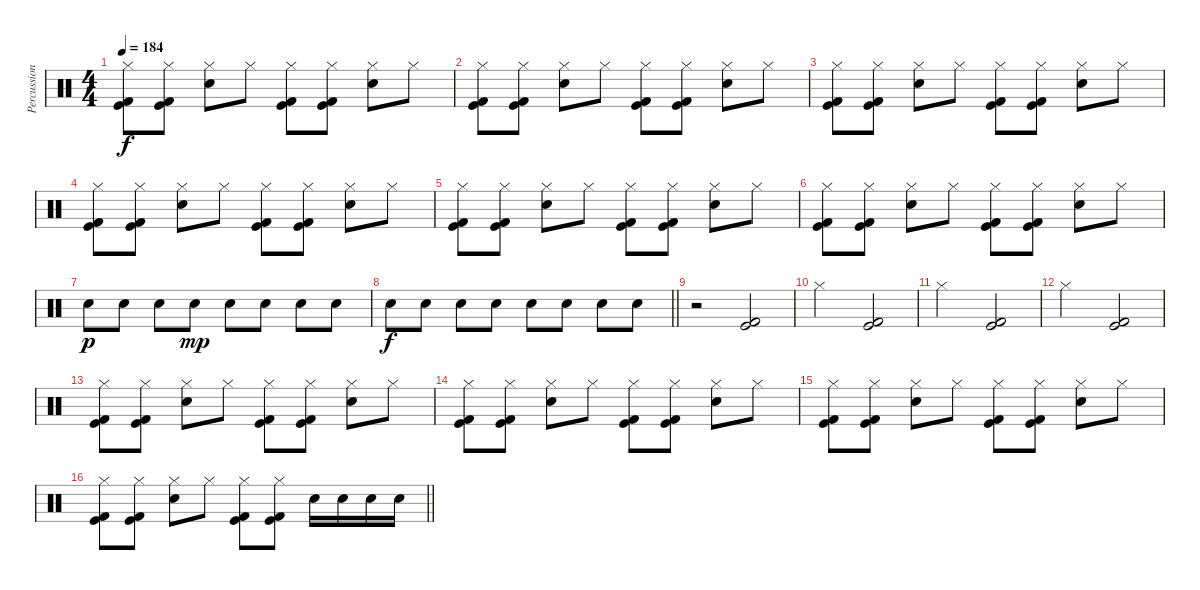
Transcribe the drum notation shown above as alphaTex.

\track ("Percussion" "Percussion") {instrument percussion}
\staff {score}
\articulation defaults
\ts (4 4)
\tempo 184
\clef neutral
\ks c
("Hi-Hat (closed)" "Kick (hit)" "Kick (hit) 2").8{dy f} ("Hi-Hat (closed)" "Kick (hit)" "Kick (hit) 2").8 ("Hi-Hat (closed)" "Electric Snare (hit)").8 "Hi-Hat (closed)".8 ("Hi-Hat (closed)" "Kick (hit)" "Kick (hit) 2").8 ("Hi-Hat (closed)" "Kick (hit)" "Kick (hit) 2").8 ("Hi-Hat (closed)" "Electric Snare (hit)").8 "Hi-Hat (closed)".8 |
("Hi-Hat (closed)" "Kick (hit)" "Kick (hit) 2").8 ("Hi-Hat (closed)" "Kick (hit)" "Kick (hit) 2").8 ("Hi-Hat (closed)" "Electric Snare (hit)").8 "Hi-Hat (closed)".8 ("Hi-Hat (closed)" "Kick (hit)" "Kick (hit) 2").8 ("Hi-Hat (closed)" "Kick (hit)" "Kick (hit) 2").8 ("Hi-Hat (closed)" "Electric Snare (hit)").8 "Hi-Hat (closed)".8 |
("Hi-Hat (closed)" "Kick (hit)" "Kick (hit) 2").8 ("Hi-Hat (closed)" "Kick (hit)" "Kick (hit) 2").8 ("Hi-Hat (closed)" "Electric Snare (hit)").8 "Hi-Hat (closed)".8 ("Hi-Hat (closed)" "Kick (hit)" "Kick (hit) 2").8 ("Hi-Hat (closed)" "Kick (hit)" "Kick (hit) 2").8 ("Hi-Hat (closed)" "Electric Snare (hit)").8 "Hi-Hat (closed)".8 |
("Hi-Hat (closed)" "Kick (hit)" "Kick (hit) 2").8 ("Hi-Hat (closed)" "Kick (hit)" "Kick (hit) 2").8 ("Hi-Hat (closed)" "Electric Snare (hit)").8 "Hi-Hat (closed)".8 ("Hi-Hat (closed)" "Kick (hit)" "Kick (hit) 2").8 ("Hi-Hat (closed)" "Kick (hit)" "Kick (hit) 2").8 ("Hi-Hat (closed)" "Electric Snare (hit)").8 "Hi-Hat (closed)".8 |
("Hi-Hat (closed)" "Kick (hit)" "Kick (hit) 2").8 ("Hi-Hat (closed)" "Kick (hit)" "Kick (hit) 2").8 ("Hi-Hat (closed)" "Electric Snare (hit)").8 "Hi-Hat (closed)".8 ("Hi-Hat (closed)" "Kick (hit)" "Kick (hit) 2").8 ("Hi-Hat (closed)" "Kick (hit)" "Kick (hit) 2").8 ("Hi-Hat (closed)" "Electric Snare (hit)").8 "Hi-Hat (closed)".8 |
("Hi-Hat (closed)" "Kick (hit)" "Kick (hit) 2").8 ("Hi-Hat (closed)" "Kick (hit)" "Kick (hit) 2").8 ("Hi-Hat (closed)" "Electric Snare (hit)").8 "Hi-Hat (closed)".8 ("Hi-Hat (closed)" "Kick (hit)" "Kick (hit) 2").8 ("Hi-Hat (closed)" "Kick (hit)" "Kick (hit) 2").8 ("Hi-Hat (closed)" "Electric Snare (hit)").8 "Hi-Hat (closed)".8 |
"Electric Snare (hit)".8{dy p} "Electric Snare (hit)".8 "Electric Snare (hit)".8 "Electric Snare (hit)".8{dy mp} "Electric Snare (hit)".8 "Electric Snare (hit)".8 "Electric Snare (hit)".8 "Electric Snare (hit)".8 |
\barLineRight lightlight "Electric Snare (hit)".8{dy f} "Electric Snare (hit)".8 "Electric Snare (hit)".8 "Electric Snare (hit)".8 "Electric Snare (hit)".8 "Electric Snare (hit)".8 "Electric Snare (hit)".8 "Electric Snare (hit)".8
|
\section ("" "")
r.2 ("Kick (hit)" "Kick (hit) 2").2 |
"Hi-Hat (closed)".2 ("Kick (hit)" "Kick (hit) 2").2 |
"Hi-Hat (closed)".2 ("Kick (hit)" "Kick (hit) 2").2 |
"Hi-Hat (closed)".2 ("Kick (hit)" "Kick (hit) 2").2 |
("Hi-Hat (closed)" "Kick (hit)" "Kick (hit) 2").8 ("Hi-Hat (closed)" "Kick (hit)" "Kick (hit) 2").8 ("Hi-Hat (closed)" "Electric Snare (hit)").8 "Hi-Hat (closed)".8 ("Hi-Hat (closed)" "Kick (hit)" "Kick (hit) 2").8 ("Hi-Hat (closed)" "Kick (hit)" "Kick (hit) 2").8 ("Hi-Hat (closed)" "Electric Snare (hit)").8 "Hi-Hat (closed)".8 |
("Hi-Hat (closed)" "Kick (hit)" "Kick (hit) 2").8 ("Hi-Hat (closed)" "Kick (hit)" "Kick (hit) 2").8 ("Hi-Hat (closed)" "Electric Snare (hit)").8 "Hi-Hat (closed)".8 ("Hi-Hat (closed)" "Kick (hit)" "Kick (hit) 2").8 ("Hi-Hat (closed)" "Kick (hit)" "Kick (hit) 2").8 ("Hi-Hat (closed)" "Electric Snare (hit)").8 "Hi-Hat (closed)".8 |
("Hi-Hat (closed)" "Kick (hit)" "Kick (hit) 2").8 ("Hi-Hat (closed)" "Kick (hit)" "Kick (hit) 2").8 ("Hi-Hat (closed)" "Electric Snare (hit)").8 "Hi-Hat (closed)".8 ("Hi-Hat (closed)" "Kick (hit)" "Kick (hit) 2").8 ("Hi-Hat (closed)" "Kick (hit)" "Kick (hit) 2").8 ("Hi-Hat (closed)" "Electric Snare (hit)").8 "Hi-Hat (closed)".8 |
\barLineRight lightlight
("Hi-Hat (closed)" "Kick (hit)" "Kick (hit) 2").8 ("Hi-Hat (closed)" "Kick (hit)" "Kick (hit) 2").8 ("Hi-Hat (closed)" "Electric Snare (hit)").8 "Hi-Hat (closed)".8 ("Hi-Hat (closed)" "Kick (hit)" "Kick (hit) 2").8 ("Hi-Hat (closed)" "Kick (hit)" "Kick (hit) 2").8 "Electric Snare (hit)".16 "Electric Snare (hit)".16 "Electric Snare (hit)".16 "Electric Snare (hit)".16
